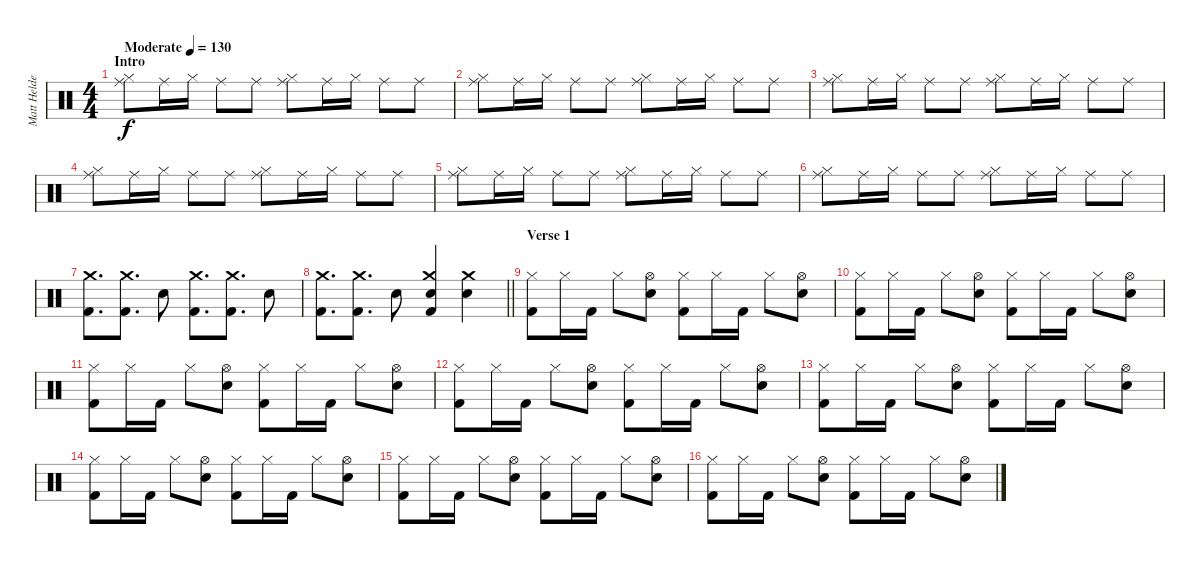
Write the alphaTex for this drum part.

\track ("Matt Helders" "Matt Helde") {instrument percussion}
\staff {score}
\articulation defaults
\ts (4 4)
\section ("" "Intro")
\tempo (130 "Moderate")
\clef neutral
\ks c
("Ride (middle)" "Hi-Hat (closed)").8{dy f} "Ride (middle)".16 "Hi-Hat (closed)".16 "Ride (middle)".8 "Ride (middle)".8 ("Ride (middle)" "Hi-Hat (closed)").8 "Ride (middle)".16 "Hi-Hat (closed)".16 "Ride (middle)".8 "Ride (middle)".8 |
("Ride (middle)" "Hi-Hat (closed)").8 "Ride (middle)".16 "Hi-Hat (closed)".16 "Ride (middle)".8 "Ride (middle)".8 ("Ride (middle)" "Hi-Hat (closed)").8 "Ride (middle)".16 "Hi-Hat (closed)".16 "Ride (middle)".8 "Ride (middle)".8 |
("Ride (middle)" "Hi-Hat (closed)").8 "Ride (middle)".16 "Hi-Hat (closed)".16 "Ride (middle)".8 "Ride (middle)".8 ("Ride (middle)" "Hi-Hat (closed)").8 "Ride (middle)".16 "Hi-Hat (closed)".16 "Ride (middle)".8 "Ride (middle)".8 |
("Ride (middle)" "Hi-Hat (closed)").8 "Ride (middle)".16 "Hi-Hat (closed)".16 "Ride (middle)".8 "Ride (middle)".8 ("Ride (middle)" "Hi-Hat (closed)").8 "Ride (middle)".16 "Hi-Hat (closed)".16 "Ride (middle)".8 "Ride (middle)".8 |
("Ride (middle)" "Hi-Hat (closed)").8 "Ride (middle)".16 "Hi-Hat (closed)".16 "Ride (middle)".8 "Ride (middle)".8 ("Ride (middle)" "Hi-Hat (closed)").8 "Ride (middle)".16 "Hi-Hat (closed)".16 "Ride (middle)".8 "Ride (middle)".8 |
("Ride (middle)" "Hi-Hat (closed)").8 "Ride (middle)".16 "Hi-Hat (closed)".16 "Ride (middle)".8 "Ride (middle)".8 ("Ride (middle)" "Hi-Hat (closed)").8 "Ride (middle)".16 "Hi-Hat (closed)".16 "Ride (middle)".8 "Ride (middle)".8 |
("Kick (hit) 2" "Crash medium (hit)").8{d} ("Kick (hit) 2" "Crash medium (hit)").8{d} "Snare (hit) 2".8 ("Kick (hit) 2" "Crash medium (hit)").8{d} ("Kick (hit) 2" "Crash medium (hit)").8{d} "Snare (hit) 2".8 |
\barLineRight lightlight
("Kick (hit) 2" "Crash medium (hit)").8{d} ("Kick (hit) 2" "Crash medium (hit)").8{d} "Snare (hit) 2".8 ("Snare (hit) 2" "Kick (hit) 2" "Crash medium (hit)").4 ("Crash medium (hit)" "Snare (hit) 2").4 |
\section ("" "Verse 1")
("Hi-Hat (closed)" "Kick (hit) 2").8 "Hi-Hat (closed)".16 "Kick (hit) 2".16 "Hi-Hat (closed)".8 ("Hi-Hat (open)" "Snare (hit) 2").8 ("Hi-Hat (closed)" "Kick (hit) 2").8 "Hi-Hat (closed)".16 "Kick (hit) 2".16 "Hi-Hat (closed)".8 ("Hi-Hat (open)" "Snare (hit) 2").8 |
("Hi-Hat (closed)" "Kick (hit) 2").8 "Hi-Hat (closed)".16 "Kick (hit) 2".16 "Hi-Hat (closed)".8 ("Hi-Hat (open)" "Snare (hit) 2").8 ("Hi-Hat (closed)" "Kick (hit) 2").8 "Hi-Hat (closed)".16 "Kick (hit) 2".16 "Hi-Hat (closed)".8 ("Hi-Hat (open)" "Snare (hit) 2").8 |
("Hi-Hat (closed)" "Kick (hit) 2").8 "Hi-Hat (closed)".16 "Kick (hit) 2".16 "Hi-Hat (closed)".8 ("Hi-Hat (open)" "Snare (hit) 2").8 ("Hi-Hat (closed)" "Kick (hit) 2").8 "Hi-Hat (closed)".16 "Kick (hit) 2".16 "Hi-Hat (closed)".8 ("Hi-Hat (open)" "Snare (hit) 2").8 |
("Hi-Hat (closed)" "Kick (hit) 2").8 "Hi-Hat (closed)".16 "Kick (hit) 2".16 "Hi-Hat (closed)".8 ("Hi-Hat (open)" "Snare (hit) 2").8 ("Hi-Hat (closed)" "Kick (hit) 2").8 "Hi-Hat (closed)".16 "Kick (hit) 2".16 "Hi-Hat (closed)".8 ("Hi-Hat (open)" "Snare (hit) 2").8 |
("Hi-Hat (closed)" "Kick (hit) 2").8 "Hi-Hat (closed)".16 "Kick (hit) 2".16 "Hi-Hat (closed)".8 ("Hi-Hat (open)" "Snare (hit) 2").8 ("Hi-Hat (closed)" "Kick (hit) 2").8 "Hi-Hat (closed)".16 "Kick (hit) 2".16 "Hi-Hat (closed)".8 ("Hi-Hat (open)" "Snare (hit) 2").8 |
("Hi-Hat (closed)" "Kick (hit) 2").8 "Hi-Hat (closed)".16 "Kick (hit) 2".16 "Hi-Hat (closed)".8 ("Hi-Hat (open)" "Snare (hit) 2").8 ("Hi-Hat (closed)" "Kick (hit) 2").8 "Hi-Hat (closed)".16 "Kick (hit) 2".16 "Hi-Hat (closed)".8 ("Hi-Hat (open)" "Snare (hit) 2").8 |
("Hi-Hat (closed)" "Kick (hit) 2").8 "Hi-Hat (closed)".16 "Kick (hit) 2".16 "Hi-Hat (closed)".8 ("Hi-Hat (open)" "Snare (hit) 2").8 ("Hi-Hat (closed)" "Kick (hit) 2").8 "Hi-Hat (closed)".16 "Kick (hit) 2".16 "Hi-Hat (closed)".8 ("Hi-Hat (open)" "Snare (hit) 2").8 |
("Hi-Hat (closed)" "Kick (hit) 2").8 "Hi-Hat (closed)".16 "Kick (hit) 2".16 "Hi-Hat (closed)".8 ("Hi-Hat (open)" "Snare (hit) 2").8 ("Hi-Hat (closed)" "Kick (hit) 2").8 "Hi-Hat (closed)".16 "Kick (hit) 2".16 "Hi-Hat (closed)".8 ("Hi-Hat (open)" "Snare (hit) 2").8
